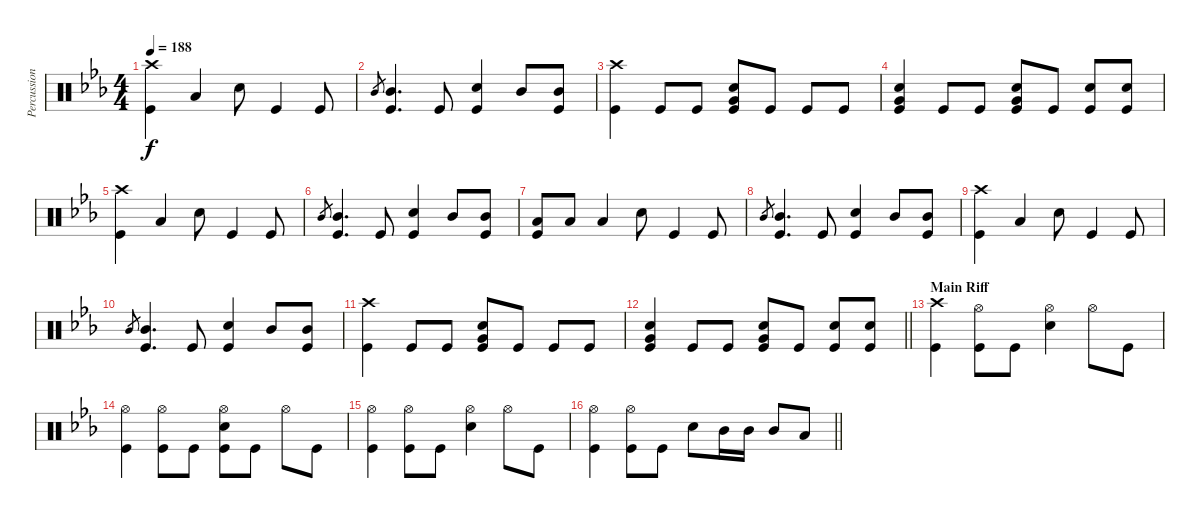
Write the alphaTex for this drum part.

\track ("Percussion" "Percussion") {instrument percussion}
\staff {score}
\articulation defaults
\ts (4 4)
\tempo 188
\clef neutral
\ks eb
("Crash high (hit)" "Kick (hit)").4{dy f} "Low Tom (hit)".4 "Electric Snare (hit)".8 "Kick (hit)".4 "Kick (hit)".8 |
"Mid Tom (hit)".8{gr} ("Mid Tom (hit)" "Kick (hit)").4{d} "Kick (hit)".8 ("Electric Snare (hit)" "Kick (hit)").4 "Mid Tom (hit)".8 ("Mid Tom (hit)" "Kick (hit)").8 |
("Crash high (hit)" "Kick (hit)").4 "Kick (hit)".8 "Kick (hit)".8 ("Electric Snare (hit)" "Very Low Tom (hit)" "Kick (hit)").8 "Kick (hit)".8 "Kick (hit)".8 "Kick (hit)".8 |
("Electric Snare (hit)" "Very Low Tom (hit)" "Kick (hit)").4 "Kick (hit)".8 "Kick (hit)".8 ("Electric Snare (hit)" "Very Low Tom (hit)" "Kick (hit)").8 "Kick (hit)".8 ("Electric Snare (hit)" "Kick (hit)").8 ("Electric Snare (hit)" "Kick (hit)").8 |
("Crash high (hit)" "Kick (hit)").4 "Low Tom (hit)".4 "Electric Snare (hit)".8 "Kick (hit)".4 "Kick (hit)".8 |
"Mid Tom (hit)".8{gr} ("Mid Tom (hit)" "Kick (hit)").4{d} "Kick (hit)".8 ("Electric Snare (hit)" "Kick (hit)").4 "Mid Tom (hit)".8 ("Mid Tom (hit)" "Kick (hit)").8 |
("Low Tom (hit)" "Kick (hit)").8 "Low Tom (hit)".8 "Low Tom (hit)".4 "Electric Snare (hit)".8 "Kick (hit)".4 "Kick (hit)".8 |
"Mid Tom (hit)".8{gr} ("Mid Tom (hit)" "Kick (hit)").4{d} "Kick (hit)".8 ("Electric Snare (hit)" "Kick (hit)").4 "Mid Tom (hit)".8 ("Mid Tom (hit)" "Kick (hit)").8 |
("Crash high (hit)" "Kick (hit)").4 "Low Tom (hit)".4 "Electric Snare (hit)".8 "Kick (hit)".4 "Kick (hit)".8 |
"Mid Tom (hit)".8{gr} ("Mid Tom (hit)" "Kick (hit)").4{d} "Kick (hit)".8 ("Electric Snare (hit)" "Kick (hit)").4 "Mid Tom (hit)".8 ("Mid Tom (hit)" "Kick (hit)").8 |
("Crash high (hit)" "Kick (hit)").4 "Kick (hit)".8 "Kick (hit)".8 ("Electric Snare (hit)" "Very Low Tom (hit)" "Kick (hit)").8 "Kick (hit)".8 "Kick (hit)".8 "Kick (hit)".8 |
\barLineRight lightlight
("Electric Snare (hit)" "Very Low Tom (hit)" "Kick (hit)").4 "Kick (hit)".8 "Kick (hit)".8 ("Electric Snare (hit)" "Very Low Tom (hit)" "Kick (hit)").8 "Kick (hit)".8 ("Electric Snare (hit)" "Kick (hit)").8 ("Electric Snare (hit)" "Kick (hit)").8 |
\section ("" "Main Riff")
("Crash high (hit)" "Kick (hit)").4 ("Hi-Hat (open)" "Kick (hit)").8 "Kick (hit)".8 ("Hi-Hat (open)" "Electric Snare (hit)").4 "Hi-Hat (open)".8 "Kick (hit)".8 |
("Hi-Hat (open)" "Kick (hit)").4 ("Hi-Hat (open)" "Kick (hit)").8 "Kick (hit)".8 ("Hi-Hat (open)" "Electric Snare (hit)" "Kick (hit)").8 "Kick (hit)".8 "Hi-Hat (open)".8 "Kick (hit)".8 |
("Hi-Hat (open)" "Kick (hit)").4 ("Hi-Hat (open)" "Kick (hit)").8 "Kick (hit)".8 ("Hi-Hat (open)" "Electric Snare (hit)").4 "Hi-Hat (open)".8 "Kick (hit)".8 |
\barLineRight lightlight
("Hi-Hat (open)" "Kick (hit)").4 ("Hi-Hat (open)" "Kick (hit)").8 "Kick (hit)".8 "Electric Snare (hit)".8 "Mid Tom (hit)".16 "Mid Tom (hit)".16 "Mid Tom (hit)".8 "Low Tom (hit)".8
